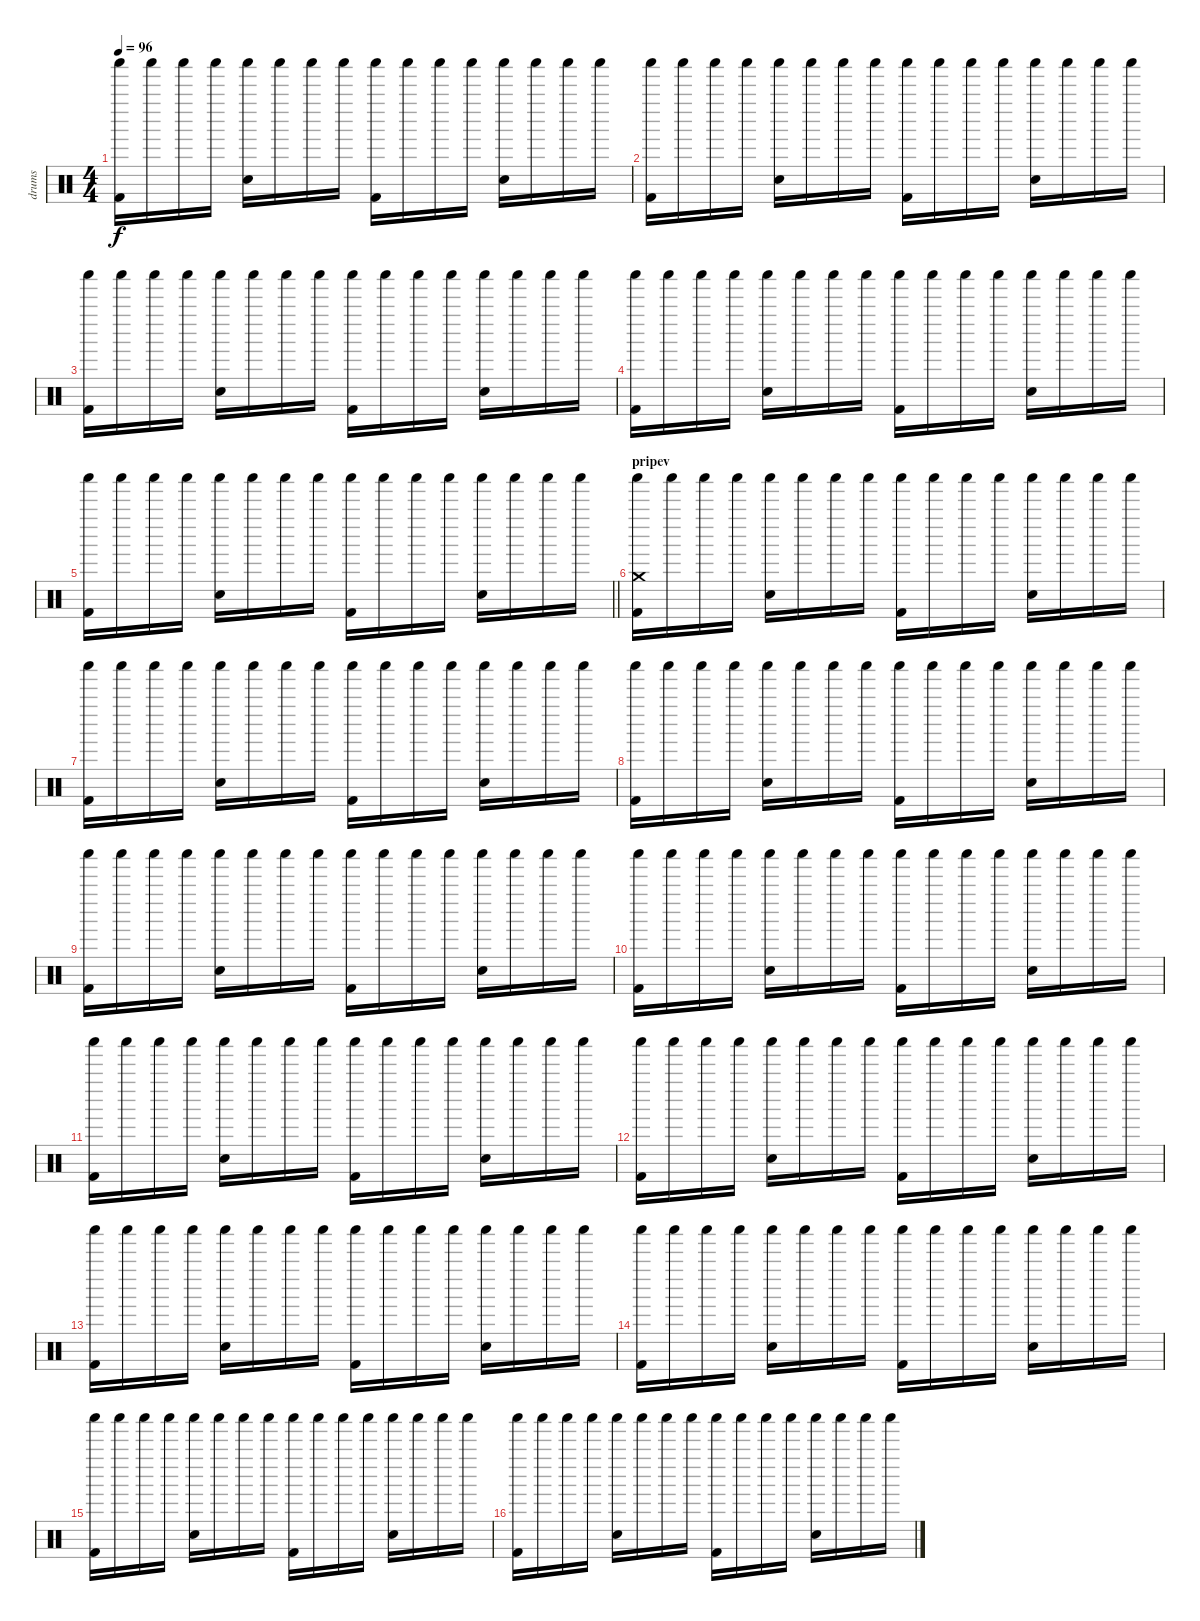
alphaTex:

\track ("drums" "drums") {instrument percussion}
\staff {score}
\articulation defaults
\ts (4 4)
\tempo 96
\clef neutral
\ks c
("Shaker (hit)" "Kick (hit) 2").16{dy f} "Shaker (hit)".16 "Shaker (hit)".16 "Shaker (hit)".16 ("Shaker (hit)" "Electric Snare (hit)").16 "Shaker (hit)".16 "Shaker (hit)".16 "Shaker (hit)".16 ("Shaker (hit)" "Kick (hit) 2").16 "Shaker (hit)".16 "Shaker (hit)".16 "Shaker (hit)".16 ("Shaker (hit)" "Electric Snare (hit)").16 "Shaker (hit)".16 "Shaker (hit)".16 "Shaker (hit)".16 |
("Shaker (hit)" "Kick (hit) 2").16 "Shaker (hit)".16 "Shaker (hit)".16 "Shaker (hit)".16 ("Shaker (hit)" "Electric Snare (hit)").16 "Shaker (hit)".16 "Shaker (hit)".16 "Shaker (hit)".16 ("Shaker (hit)" "Kick (hit) 2").16 "Shaker (hit)".16 "Shaker (hit)".16 "Shaker (hit)".16 ("Shaker (hit)" "Electric Snare (hit)").16 "Shaker (hit)".16 "Shaker (hit)".16 "Shaker (hit)".16 |
("Shaker (hit)" "Kick (hit) 2").16 "Shaker (hit)".16 "Shaker (hit)".16 "Shaker (hit)".16 ("Shaker (hit)" "Electric Snare (hit)").16 "Shaker (hit)".16 "Shaker (hit)".16 "Shaker (hit)".16 ("Shaker (hit)" "Kick (hit) 2").16 "Shaker (hit)".16 "Shaker (hit)".16 "Shaker (hit)".16 ("Shaker (hit)" "Electric Snare (hit)").16 "Shaker (hit)".16 "Shaker (hit)".16 "Shaker (hit)".16 |
("Shaker (hit)" "Kick (hit) 2").16 "Shaker (hit)".16 "Shaker (hit)".16 "Shaker (hit)".16 ("Shaker (hit)" "Electric Snare (hit)").16 "Shaker (hit)".16 "Shaker (hit)".16 "Shaker (hit)".16 ("Shaker (hit)" "Kick (hit) 2").16 "Shaker (hit)".16 "Shaker (hit)".16 "Shaker (hit)".16 ("Shaker (hit)" "Electric Snare (hit)").16 "Shaker (hit)".16 "Shaker (hit)".16 "Shaker (hit)".16 |
\barLineRight lightlight
("Shaker (hit)" "Kick (hit) 2").16 "Shaker (hit)".16 "Shaker (hit)".16 "Shaker (hit)".16 ("Shaker (hit)" "Electric Snare (hit)").16 "Shaker (hit)".16 "Shaker (hit)".16 "Shaker (hit)".16 ("Shaker (hit)" "Kick (hit) 2").16 "Shaker (hit)".16 "Shaker (hit)".16 "Shaker (hit)".16 ("Shaker (hit)" "Electric Snare (hit)").16 "Shaker (hit)".16 "Shaker (hit)".16 "Shaker (hit)".16 |
\section ("" "pripev")
("Shaker (hit)" "Kick (hit) 2" "Crash medium (hit)").16 "Shaker (hit)".16 "Shaker (hit)".16 "Shaker (hit)".16 ("Shaker (hit)" "Electric Snare (hit)").16 "Shaker (hit)".16 "Shaker (hit)".16 "Shaker (hit)".16 ("Shaker (hit)" "Kick (hit) 2").16 "Shaker (hit)".16 "Shaker (hit)".16 "Shaker (hit)".16 ("Shaker (hit)" "Snare (hit) 2").16 "Shaker (hit)".16 "Shaker (hit)".16 "Shaker (hit)".16 |
("Shaker (hit)" "Kick (hit) 2").16 "Shaker (hit)".16 "Shaker (hit)".16 "Shaker (hit)".16 ("Shaker (hit)" "Electric Snare (hit)").16 "Shaker (hit)".16 "Shaker (hit)".16 "Shaker (hit)".16 ("Shaker (hit)" "Kick (hit) 2").16 "Shaker (hit)".16 "Shaker (hit)".16 "Shaker (hit)".16 ("Shaker (hit)" "Electric Snare (hit)").16 "Shaker (hit)".16 "Shaker (hit)".16 "Shaker (hit)".16 |
("Shaker (hit)" "Kick (hit) 2").16 "Shaker (hit)".16 "Shaker (hit)".16 "Shaker (hit)".16 ("Shaker (hit)" "Electric Snare (hit)").16 "Shaker (hit)".16 "Shaker (hit)".16 "Shaker (hit)".16 ("Shaker (hit)" "Kick (hit) 2").16 "Shaker (hit)".16 "Shaker (hit)".16 "Shaker (hit)".16 ("Shaker (hit)" "Electric Snare (hit)").16 "Shaker (hit)".16 "Shaker (hit)".16 "Shaker (hit)".16 |
("Shaker (hit)" "Kick (hit) 2").16 "Shaker (hit)".16 "Shaker (hit)".16 "Shaker (hit)".16 ("Shaker (hit)" "Electric Snare (hit)").16 "Shaker (hit)".16 "Shaker (hit)".16 "Shaker (hit)".16 ("Shaker (hit)" "Kick (hit) 2").16 "Shaker (hit)".16 "Shaker (hit)".16 "Shaker (hit)".16 ("Shaker (hit)" "Electric Snare (hit)").16 "Shaker (hit)".16 "Shaker (hit)".16 "Shaker (hit)".16 |
("Shaker (hit)" "Kick (hit) 2").16 "Shaker (hit)".16 "Shaker (hit)".16 "Shaker (hit)".16 ("Shaker (hit)" "Electric Snare (hit)").16 "Shaker (hit)".16 "Shaker (hit)".16 "Shaker (hit)".16 ("Shaker (hit)" "Kick (hit) 2").16 "Shaker (hit)".16 "Shaker (hit)".16 "Shaker (hit)".16 ("Shaker (hit)" "Electric Snare (hit)").16 "Shaker (hit)".16 "Shaker (hit)".16 "Shaker (hit)".16 |
("Shaker (hit)" "Kick (hit) 2").16 "Shaker (hit)".16 "Shaker (hit)".16 "Shaker (hit)".16 ("Shaker (hit)" "Electric Snare (hit)").16 "Shaker (hit)".16 "Shaker (hit)".16 "Shaker (hit)".16 ("Shaker (hit)" "Kick (hit) 2").16 "Shaker (hit)".16 "Shaker (hit)".16 "Shaker (hit)".16 ("Shaker (hit)" "Electric Snare (hit)").16 "Shaker (hit)".16 "Shaker (hit)".16 "Shaker (hit)".16 |
("Shaker (hit)" "Kick (hit) 2").16 "Shaker (hit)".16 "Shaker (hit)".16 "Shaker (hit)".16 ("Shaker (hit)" "Electric Snare (hit)").16 "Shaker (hit)".16 "Shaker (hit)".16 "Shaker (hit)".16 ("Shaker (hit)" "Kick (hit) 2").16 "Shaker (hit)".16 "Shaker (hit)".16 "Shaker (hit)".16 ("Shaker (hit)" "Electric Snare (hit)").16 "Shaker (hit)".16 "Shaker (hit)".16 "Shaker (hit)".16 |
("Shaker (hit)" "Kick (hit) 2").16 "Shaker (hit)".16 "Shaker (hit)".16 "Shaker (hit)".16 ("Shaker (hit)" "Electric Snare (hit)").16 "Shaker (hit)".16 "Shaker (hit)".16 "Shaker (hit)".16 ("Shaker (hit)" "Kick (hit) 2").16 "Shaker (hit)".16 "Shaker (hit)".16 "Shaker (hit)".16 ("Shaker (hit)" "Electric Snare (hit)").16 "Shaker (hit)".16 "Shaker (hit)".16 "Shaker (hit)".16 |
("Shaker (hit)" "Kick (hit) 2").16 "Shaker (hit)".16 "Shaker (hit)".16 "Shaker (hit)".16 ("Shaker (hit)" "Electric Snare (hit)").16 "Shaker (hit)".16 "Shaker (hit)".16 "Shaker (hit)".16 ("Shaker (hit)" "Kick (hit) 2").16 "Shaker (hit)".16 "Shaker (hit)".16 "Shaker (hit)".16 ("Shaker (hit)" "Electric Snare (hit)").16 "Shaker (hit)".16 "Shaker (hit)".16 "Shaker (hit)".16 |
("Shaker (hit)" "Kick (hit) 2").16 "Shaker (hit)".16 "Shaker (hit)".16 "Shaker (hit)".16 ("Shaker (hit)" "Electric Snare (hit)").16 "Shaker (hit)".16 "Shaker (hit)".16 "Shaker (hit)".16 ("Shaker (hit)" "Kick (hit) 2").16 "Shaker (hit)".16 "Shaker (hit)".16 "Shaker (hit)".16 ("Shaker (hit)" "Electric Snare (hit)").16 "Shaker (hit)".16 "Shaker (hit)".16 "Shaker (hit)".16 |
("Shaker (hit)" "Kick (hit) 2").16 "Shaker (hit)".16 "Shaker (hit)".16 "Shaker (hit)".16 ("Shaker (hit)" "Electric Snare (hit)").16 "Shaker (hit)".16 "Shaker (hit)".16 "Shaker (hit)".16 ("Shaker (hit)" "Kick (hit) 2").16 "Shaker (hit)".16 "Shaker (hit)".16 "Shaker (hit)".16 ("Shaker (hit)" "Electric Snare (hit)").16 "Shaker (hit)".16 "Shaker (hit)".16 "Shaker (hit)".16
